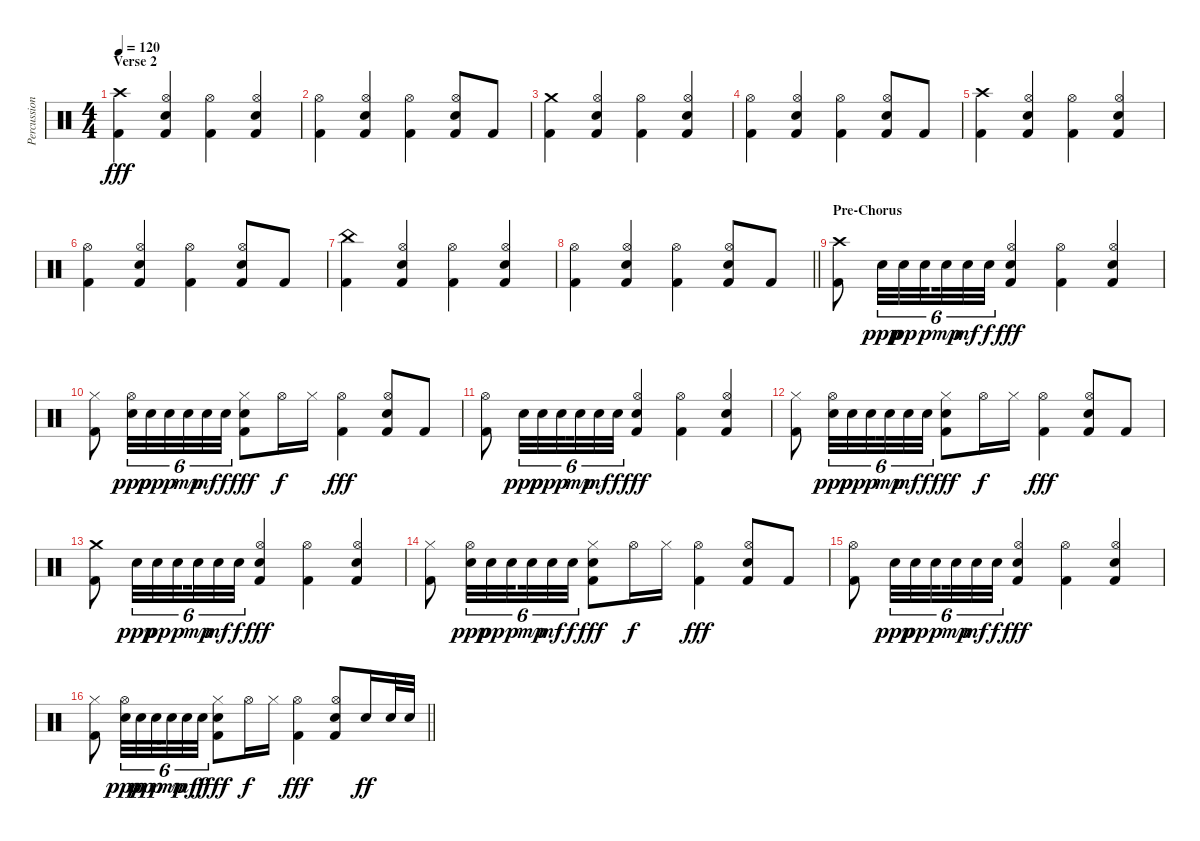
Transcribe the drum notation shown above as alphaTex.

\track ("Percussion" "Percussion") {instrument percussion}
\staff {score}
\articulation defaults
\ts (4 4)
\section ("" "Verse 2")
\tempo 120
\clef neutral
\ks c
("Crash high (hit)" "Kick (hit) 2").4{dy fff} ("Hi-Hat (open)" "Electric Snare (hit)" "Kick (hit) 2").4 ("Hi-Hat (open)" "Kick (hit) 2").4 ("Hi-Hat (open)" "Electric Snare (hit)" "Kick (hit) 2").4 |
("Hi-Hat (open)" "Kick (hit) 2").4 ("Hi-Hat (open)" "Electric Snare (hit)" "Kick (hit) 2").4 ("Hi-Hat (open)" "Kick (hit) 2").4 ("Hi-Hat (open)" "Electric Snare (hit)" "Kick (hit) 2").8 "Kick (hit) 2".8 |
("Crash medium (hit)" "Kick (hit) 2").4 ("Hi-Hat (open)" "Electric Snare (hit)" "Kick (hit) 2").4 ("Hi-Hat (open)" "Kick (hit) 2").4 ("Hi-Hat (open)" "Electric Snare (hit)" "Kick (hit) 2").4 |
("Hi-Hat (open)" "Kick (hit) 2").4 ("Hi-Hat (open)" "Electric Snare (hit)" "Kick (hit) 2").4 ("Hi-Hat (open)" "Kick (hit) 2").4 ("Hi-Hat (open)" "Electric Snare (hit)" "Kick (hit) 2").8 "Kick (hit) 2".8 |
("Crash high (hit)" "Kick (hit) 2").4 ("Hi-Hat (open)" "Electric Snare (hit)" "Kick (hit) 2").4 ("Hi-Hat (open)" "Kick (hit) 2").4 ("Hi-Hat (open)" "Electric Snare (hit)" "Kick (hit) 2").4 |
("Hi-Hat (open)" "Kick (hit) 2").4 ("Hi-Hat (open)" "Electric Snare (hit)" "Kick (hit) 2").4 ("Hi-Hat (open)" "Kick (hit) 2").4 ("Hi-Hat (open)" "Electric Snare (hit)" "Kick (hit) 2").8 "Kick (hit) 2".8 |
("China (hit)" "Kick (hit) 2").4 ("Hi-Hat (open)" "Electric Snare (hit)" "Kick (hit) 2").4 ("Hi-Hat (open)" "Kick (hit) 2").4 ("Hi-Hat (open)" "Electric Snare (hit)" "Kick (hit) 2").4 |
\barLineRight lightlight
("Hi-Hat (open)" "Kick (hit) 2").4 ("Hi-Hat (open)" "Electric Snare (hit)" "Kick (hit) 2").4 ("Hi-Hat (open)" "Kick (hit) 2").4 ("Hi-Hat (open)" "Electric Snare (hit)" "Kick (hit) 2").8 "Kick (hit) 2".8 |
\section ("" "Pre-Chorus")
("Crash high (hit)" "Kick (hit) 2").8 "Electric Snare (hit)".32{tu (6 4) dy ppp} "Electric Snare (hit)".32{tu (6 4) dy pp} "Electric Snare (hit)".32{tu (6 4) dy p beam splitsecondary} "Electric Snare (hit)".32{tu (6 4) dy mp} "Electric Snare (hit)".32{tu (6 4) dy mf} "Electric Snare (hit)".32{tu (6 4) dy f} ("Hi-Hat (open)" "Electric Snare (hit)" "Kick (hit) 2").4{dy fff} ("Hi-Hat (open)" "Kick (hit) 2").4 ("Hi-Hat (open)" "Electric Snare (hit)" "Kick (hit) 2").4 |
("Hi-Hat (closed)" "Kick (hit) 2").8 ("Hi-Hat (open)" "Electric Snare (hit)").32{tu (6 4) dy ppp} "Electric Snare (hit)".32{tu (6 4) dy pp} "Electric Snare (hit)".32{tu (6 4) dy p beam splitsecondary} "Electric Snare (hit)".32{tu (6 4) dy mp} "Electric Snare (hit)".32{tu (6 4) dy mf} "Electric Snare (hit)".32{tu (6 4) dy f} ("Hi-Hat (closed)" "Electric Snare (hit)" "Kick (hit) 2").8{dy fff} "Hi-Hat (open)".16{dy f} "Hi-Hat (closed)".16 ("Hi-Hat (open)" "Kick (hit) 2").4{dy fff} ("Hi-Hat (open)" "Electric Snare (hit)" "Kick (hit) 2").8 "Kick (hit) 2".8 |
("Hi-Hat (open)" "Kick (hit) 2").8 "Electric Snare (hit)".32{tu (6 4) dy ppp} "Electric Snare (hit)".32{tu (6 4) dy pp} "Electric Snare (hit)".32{tu (6 4) dy p beam splitsecondary} "Electric Snare (hit)".32{tu (6 4) dy mp} "Electric Snare (hit)".32{tu (6 4) dy mf} "Electric Snare (hit)".32{tu (6 4) dy f} ("Hi-Hat (open)" "Electric Snare (hit)" "Kick (hit) 2").4{dy fff} ("Hi-Hat (open)" "Kick (hit) 2").4 ("Hi-Hat (open)" "Electric Snare (hit)" "Kick (hit) 2").4 |
("Hi-Hat (closed)" "Kick (hit) 2").8 ("Hi-Hat (open)" "Electric Snare (hit)").32{tu (6 4) dy ppp} "Electric Snare (hit)".32{tu (6 4) dy pp} "Electric Snare (hit)".32{tu (6 4) dy p beam splitsecondary} "Electric Snare (hit)".32{tu (6 4) dy mp} "Electric Snare (hit)".32{tu (6 4) dy mf} "Electric Snare (hit)".32{tu (6 4) dy f} ("Hi-Hat (closed)" "Electric Snare (hit)" "Kick (hit) 2").8{dy fff} "Hi-Hat (open)".16{dy f} "Hi-Hat (closed)".16 ("Hi-Hat (open)" "Kick (hit) 2").4{dy fff} ("Hi-Hat (open)" "Electric Snare (hit)" "Kick (hit) 2").8 "Kick (hit) 2".8 |
("Crash medium (hit)" "Kick (hit) 2").8 "Electric Snare (hit)".32{tu (6 4) dy ppp} "Electric Snare (hit)".32{tu (6 4) dy pp} "Electric Snare (hit)".32{tu (6 4) dy p beam splitsecondary} "Electric Snare (hit)".32{tu (6 4) dy mp} "Electric Snare (hit)".32{tu (6 4) dy mf} "Electric Snare (hit)".32{tu (6 4) dy f} ("Hi-Hat (open)" "Electric Snare (hit)" "Kick (hit) 2").4{dy fff} ("Hi-Hat (open)" "Kick (hit) 2").4 ("Hi-Hat (open)" "Electric Snare (hit)" "Kick (hit) 2").4 |
("Hi-Hat (closed)" "Kick (hit) 2").8 ("Hi-Hat (open)" "Electric Snare (hit)").32{tu (6 4) dy ppp} "Electric Snare (hit)".32{tu (6 4) dy pp} "Electric Snare (hit)".32{tu (6 4) dy p beam splitsecondary} "Electric Snare (hit)".32{tu (6 4) dy mp} "Electric Snare (hit)".32{tu (6 4) dy mf} "Electric Snare (hit)".32{tu (6 4) dy f} ("Hi-Hat (closed)" "Electric Snare (hit)" "Kick (hit) 2").8{dy fff} "Hi-Hat (open)".16{dy f} "Hi-Hat (closed)".16 ("Hi-Hat (open)" "Kick (hit) 2").4{dy fff} ("Hi-Hat (open)" "Electric Snare (hit)" "Kick (hit) 2").8 "Kick (hit) 2".8 |
("Hi-Hat (open)" "Kick (hit) 2").8 "Electric Snare (hit)".32{tu (6 4) dy ppp} "Electric Snare (hit)".32{tu (6 4) dy pp} "Electric Snare (hit)".32{tu (6 4) dy p beam splitsecondary} "Electric Snare (hit)".32{tu (6 4) dy mp} "Electric Snare (hit)".32{tu (6 4) dy mf} "Electric Snare (hit)".32{tu (6 4) dy f} ("Hi-Hat (open)" "Electric Snare (hit)" "Kick (hit) 2").4{dy fff} ("Hi-Hat (open)" "Kick (hit) 2").4 ("Hi-Hat (open)" "Electric Snare (hit)" "Kick (hit) 2").4 |
\barLineRight lightlight
("Hi-Hat (closed)" "Kick (hit) 2").8 ("Hi-Hat (open)" "Electric Snare (hit)").32{tu (6 4) dy ppp} "Electric Snare (hit)".32{tu (6 4) dy pp} "Electric Snare (hit)".32{tu (6 4) dy p beam splitsecondary} "Electric Snare (hit)".32{tu (6 4) dy mp} "Electric Snare (hit)".32{tu (6 4) dy mf} "Electric Snare (hit)".32{tu (6 4) dy f} ("Hi-Hat (closed)" "Electric Snare (hit)" "Kick (hit) 2").8{dy fff} "Hi-Hat (open)".16{dy f} "Hi-Hat (closed)".16 ("Hi-Hat (open)" "Kick (hit) 2").4{dy fff} ("Hi-Hat (open)" "Electric Snare (hit)" "Kick (hit) 2").8 "Electric Snare (hit)".16{dy ff} "Electric Snare (hit)".32 "Electric Snare (hit)".32
